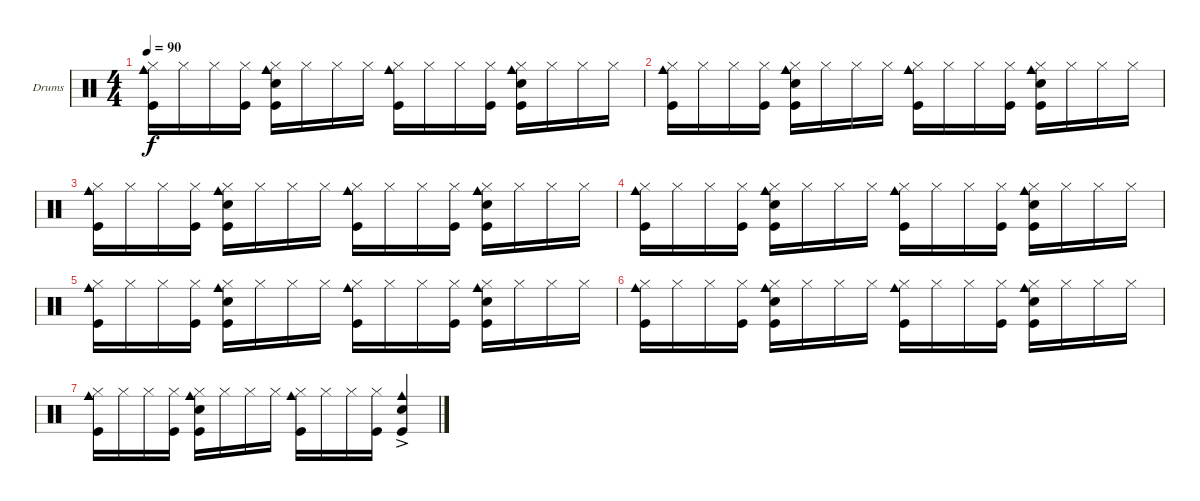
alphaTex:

\bracketExtendMode groupsimilarinstruments
\firstSystemTrackNameOrientation horizontal
\otherSystemsTrackNameOrientation horizontal
\track ("Drums" "Drums") {multiBarRest instrument percussion}
\staff {score}
\articulation defaults
\ts (4 4)
\tempo 90
\clef neutral
\ks c
("Hi-Hat (closed)" "Kick (hit)" "Cowbell medium (hit)").16{dy f} "Hi-Hat (closed)".16 "Hi-Hat (closed)".16 ("Hi-Hat (closed)" "Kick (hit)").16 ("Hi-Hat (closed)" "Snare (hit) 2" "Kick (hit)" "Cowbell medium (hit)").16 "Hi-Hat (closed)".16 "Hi-Hat (closed)".16 "Hi-Hat (closed)".16 ("Hi-Hat (closed)" "Kick (hit)" "Cowbell medium (hit)").16 "Hi-Hat (closed)".16 "Hi-Hat (closed)".16 ("Hi-Hat (closed)" "Kick (hit)").16 ("Hi-Hat (closed)" "Snare (hit) 2" "Kick (hit)" "Cowbell medium (hit)").16 "Hi-Hat (closed)".16 "Hi-Hat (closed)".16 "Hi-Hat (closed)".16 |
("Hi-Hat (closed)" "Kick (hit)" "Cowbell medium (hit)").16 "Hi-Hat (closed)".16 "Hi-Hat (closed)".16 ("Hi-Hat (closed)" "Kick (hit)").16 ("Hi-Hat (closed)" "Snare (hit) 2" "Kick (hit)" "Cowbell medium (hit)").16 "Hi-Hat (closed)".16 "Hi-Hat (closed)".16 "Hi-Hat (closed)".16 ("Hi-Hat (closed)" "Kick (hit)" "Cowbell medium (hit)").16 "Hi-Hat (closed)".16 "Hi-Hat (closed)".16 ("Hi-Hat (closed)" "Kick (hit)").16 ("Hi-Hat (closed)" "Snare (hit) 2" "Kick (hit)" "Cowbell medium (hit)").16 "Hi-Hat (closed)".16 "Hi-Hat (closed)".16 "Hi-Hat (closed)".16 |
("Hi-Hat (closed)" "Kick (hit)" "Cowbell medium (hit)").16 "Hi-Hat (closed)".16 "Hi-Hat (closed)".16 ("Hi-Hat (closed)" "Kick (hit)").16 ("Hi-Hat (closed)" "Snare (hit) 2" "Kick (hit)" "Cowbell medium (hit)").16 "Hi-Hat (closed)".16 "Hi-Hat (closed)".16 "Hi-Hat (closed)".16 ("Hi-Hat (closed)" "Kick (hit)" "Cowbell medium (hit)").16 "Hi-Hat (closed)".16 "Hi-Hat (closed)".16 ("Hi-Hat (closed)" "Kick (hit)").16 ("Hi-Hat (closed)" "Snare (hit) 2" "Kick (hit)" "Cowbell medium (hit)").16 "Hi-Hat (closed)".16 "Hi-Hat (closed)".16 "Hi-Hat (closed)".16 |
("Hi-Hat (closed)" "Kick (hit)" "Cowbell medium (hit)").16 "Hi-Hat (closed)".16 "Hi-Hat (closed)".16 ("Hi-Hat (closed)" "Kick (hit)").16 ("Hi-Hat (closed)" "Snare (hit) 2" "Kick (hit)" "Cowbell medium (hit)").16 "Hi-Hat (closed)".16 "Hi-Hat (closed)".16 "Hi-Hat (closed)".16 ("Hi-Hat (closed)" "Kick (hit)" "Cowbell medium (hit)").16 "Hi-Hat (closed)".16 "Hi-Hat (closed)".16 ("Hi-Hat (closed)" "Kick (hit)").16 ("Hi-Hat (closed)" "Snare (hit) 2" "Kick (hit)" "Cowbell medium (hit)").16 "Hi-Hat (closed)".16 "Hi-Hat (closed)".16 "Hi-Hat (closed)".16 |
("Hi-Hat (closed)" "Kick (hit)" "Cowbell medium (hit)").16 "Hi-Hat (closed)".16 "Hi-Hat (closed)".16 ("Hi-Hat (closed)" "Kick (hit)").16 ("Hi-Hat (closed)" "Snare (hit) 2" "Kick (hit)" "Cowbell medium (hit)").16 "Hi-Hat (closed)".16 "Hi-Hat (closed)".16 "Hi-Hat (closed)".16 ("Hi-Hat (closed)" "Kick (hit)" "Cowbell medium (hit)").16 "Hi-Hat (closed)".16 "Hi-Hat (closed)".16 ("Hi-Hat (closed)" "Kick (hit)").16 ("Hi-Hat (closed)" "Snare (hit) 2" "Kick (hit)" "Cowbell medium (hit)").16 "Hi-Hat (closed)".16 "Hi-Hat (closed)".16 "Hi-Hat (closed)".16 |
("Hi-Hat (closed)" "Kick (hit)" "Cowbell medium (hit)").16 "Hi-Hat (closed)".16 "Hi-Hat (closed)".16 ("Hi-Hat (closed)" "Kick (hit)").16 ("Hi-Hat (closed)" "Snare (hit) 2" "Kick (hit)" "Cowbell medium (hit)").16 "Hi-Hat (closed)".16 "Hi-Hat (closed)".16 "Hi-Hat (closed)".16 ("Hi-Hat (closed)" "Kick (hit)" "Cowbell medium (hit)").16 "Hi-Hat (closed)".16 "Hi-Hat (closed)".16 ("Hi-Hat (closed)" "Kick (hit)").16 ("Hi-Hat (closed)" "Snare (hit) 2" "Kick (hit)" "Cowbell medium (hit)").16 "Hi-Hat (closed)".16 "Hi-Hat (closed)".16 "Hi-Hat (closed)".16 |
("Hi-Hat (closed)" "Kick (hit)" "Cowbell medium (hit)").16 "Hi-Hat (closed)".16 "Hi-Hat (closed)".16 ("Hi-Hat (closed)" "Kick (hit)").16 ("Hi-Hat (closed)" "Snare (hit) 2" "Kick (hit)" "Cowbell medium (hit)").16 "Hi-Hat (closed)".16 "Hi-Hat (closed)".16 "Hi-Hat (closed)".16 ("Hi-Hat (closed)" "Kick (hit)" "Cowbell medium (hit)").16 "Hi-Hat (closed)".16 "Hi-Hat (closed)".16 ("Hi-Hat (closed)" "Kick (hit)").16 ("Snare (hit) 2"{ac} "Kick (hit)"{ac} "Cowbell medium (hit)"{ac}).4
